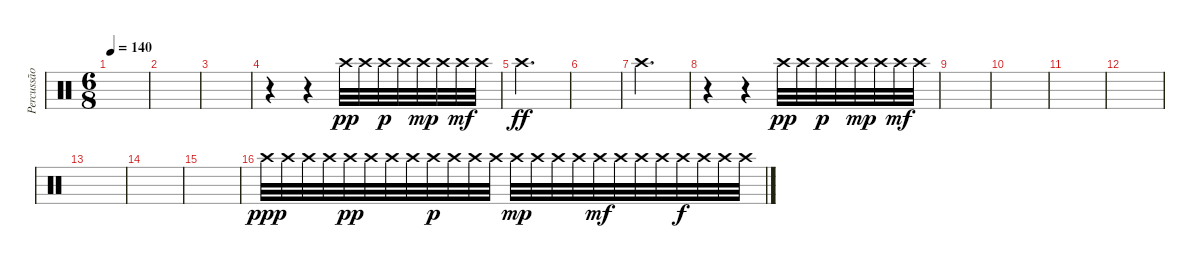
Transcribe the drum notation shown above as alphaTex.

\track ("Percussão" "Percussão") {instrument percussion}
\staff {score}
\articulation defaults
\ts (6 8)
\tempo 140
\clef neutral
\ks c
|
|
|
r.4 r.4 "Crash high (hit)".32{dy pp} "Crash high (hit)".32 "Crash high (hit)".32{dy p} "Crash high (hit)".32 "Crash high (hit)".32{dy mp} "Crash high (hit)".32 "Crash high (hit)".32{dy mf} "Crash high (hit)".32 |
"Crash high (hit)".2{d dy ff} |
|
"Crash high (hit)".2{d} |
r.4 r.4 "Crash high (hit)".32{dy pp} "Crash high (hit)".32 "Crash high (hit)".32{dy p} "Crash high (hit)".32 "Crash high (hit)".32{dy mp} "Crash high (hit)".32 "Crash high (hit)".32{dy mf} "Crash high (hit)".32 |
|
|
|
|
|
|
|
"Crash high (hit)".32{dy ppp} "Crash high (hit)".32 "Crash high (hit)".32 "Crash high (hit)".32 "Crash high (hit)".32{dy pp} "Crash high (hit)".32 "Crash high (hit)".32 "Crash high (hit)".32 "Crash high (hit)".32{dy p} "Crash high (hit)".32 "Crash high (hit)".32 "Crash high (hit)".32 "Crash high (hit)".32{dy mp} "Crash high (hit)".32 "Crash high (hit)".32 "Crash high (hit)".32 "Crash high (hit)".32{dy mf} "Crash high (hit)".32 "Crash high (hit)".32 "Crash high (hit)".32 "Crash high (hit)".32{dy f} "Crash high (hit)".32 "Crash high (hit)".32 "Crash high (hit)".32
